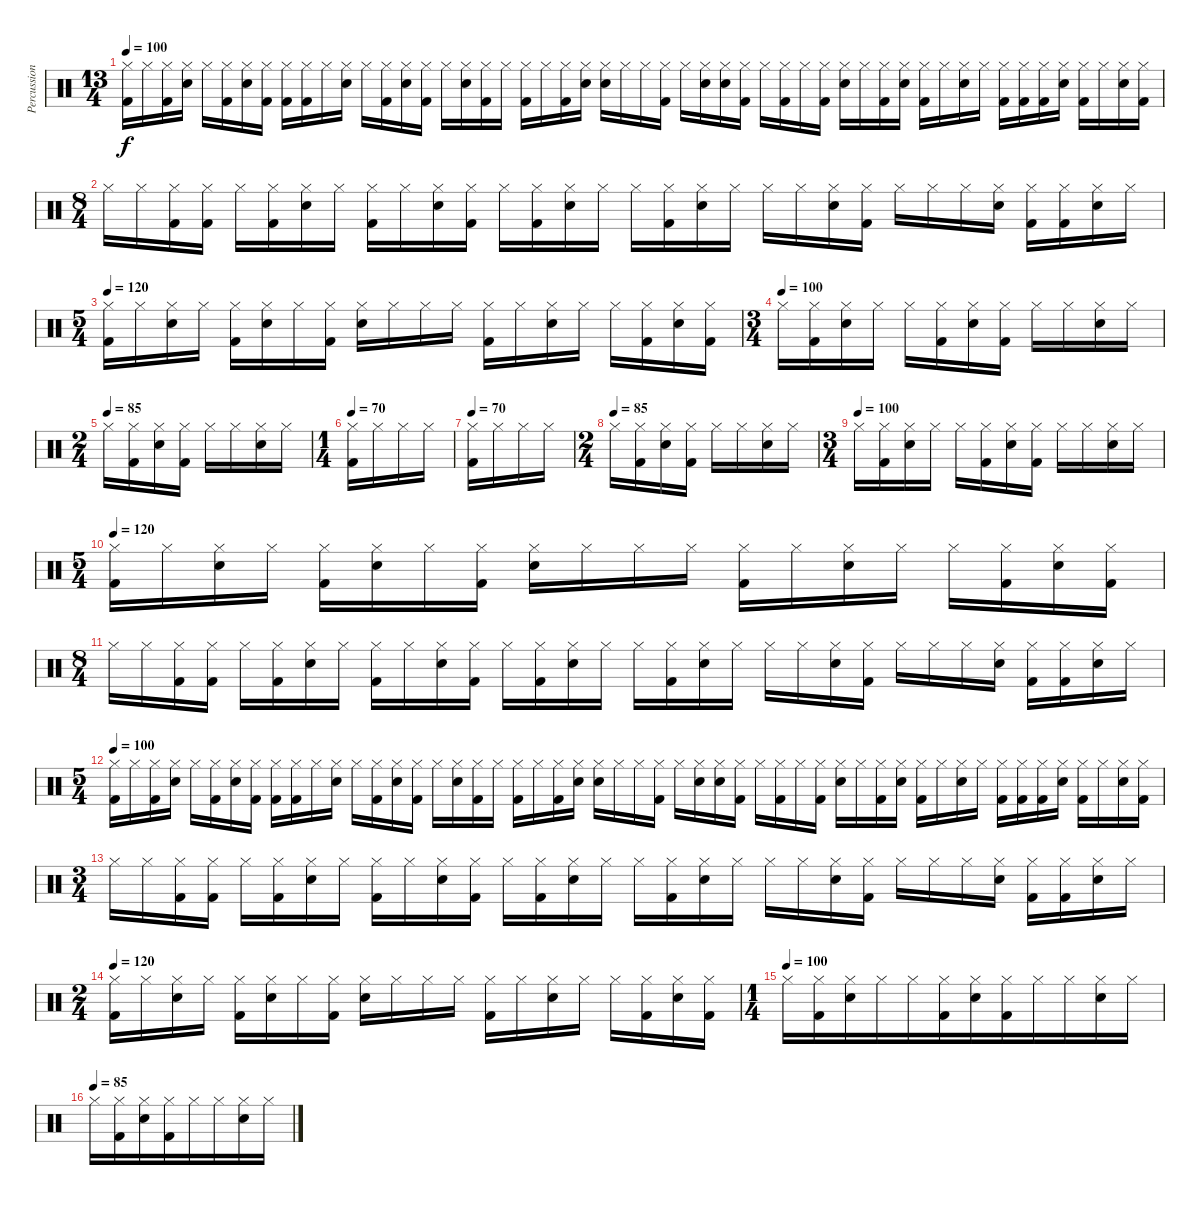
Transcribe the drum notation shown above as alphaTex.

\track ("Percussion" "Percussion") {instrument percussion}
\staff {score}
\articulation defaults
\ts (13 4)
\tempo 100
\clef neutral
\ks c
("Hi-Hat (closed)" "Kick (hit) 2").16{dy f} "Hi-Hat (closed)".16 ("Hi-Hat (closed)" "Kick (hit) 2").16 ("Hi-Hat (closed)" "Snare (hit) 2").16 "Hi-Hat (closed)".16 ("Hi-Hat (closed)" "Kick (hit) 2").16 ("Hi-Hat (closed)" "Snare (hit) 2").16 ("Hi-Hat (closed)" "Kick (hit) 2").16 ("Hi-Hat (closed)" "Kick (hit) 2").16 ("Hi-Hat (closed)" "Kick (hit) 2").16 "Hi-Hat (closed)".16 ("Hi-Hat (closed)" "Snare (hit) 2").16 "Hi-Hat (closed)".16 ("Hi-Hat (closed)" "Kick (hit) 2").16 ("Hi-Hat (closed)" "Snare (hit) 2").16 ("Hi-Hat (closed)" "Kick (hit) 2").16 "Hi-Hat (closed)".16 ("Hi-Hat (closed)" "Snare (hit) 2").16 ("Hi-Hat (closed)" "Kick (hit) 2").16 "Hi-Hat (closed)".16 ("Hi-Hat (closed)" "Kick (hit) 2").16 "Hi-Hat (closed)".16 ("Hi-Hat (closed)" "Kick (hit) 2").16 ("Hi-Hat (closed)" "Snare (hit) 2").16 ("Hi-Hat (closed)" "Snare (hit) 2").16 "Hi-Hat (closed)".16 "Hi-Hat (closed)".16 ("Hi-Hat (closed)" "Kick (hit) 2").16 "Hi-Hat (closed)".16 ("Hi-Hat (closed)" "Snare (hit) 2").16 ("Hi-Hat (closed)" "Snare (hit) 2").16 ("Hi-Hat (closed)" "Kick (hit) 2").16 "Hi-Hat (closed)".16 ("Hi-Hat (closed)" "Kick (hit) 2").16 "Hi-Hat (closed)".16 ("Hi-Hat (closed)" "Kick (hit) 2").16 ("Hi-Hat (closed)" "Snare (hit) 2").16 "Hi-Hat (closed)".16 ("Hi-Hat (closed)" "Kick (hit) 2").16 ("Hi-Hat (closed)" "Snare (hit) 2").16 ("Hi-Hat (closed)" "Kick (hit) 2").16 "Hi-Hat (closed)".16 ("Hi-Hat (closed)" "Snare (hit) 2").16 "Hi-Hat (closed)".16 ("Hi-Hat (closed)" "Kick (hit) 2").16 ("Hi-Hat (closed)" "Kick (hit) 2").16 ("Hi-Hat (closed)" "Kick (hit) 2").16 ("Hi-Hat (closed)" "Snare (hit) 2").16 ("Hi-Hat (closed)" "Kick (hit) 2").16 "Hi-Hat (closed)".16 ("Hi-Hat (closed)" "Snare (hit) 2").16 ("Hi-Hat (closed)" "Kick (hit) 2").16 |
\ts (8 4)
"Hi-Hat (closed)".16 "Hi-Hat (closed)".16 ("Hi-Hat (closed)" "Kick (hit) 2").16 ("Hi-Hat (closed)" "Kick (hit) 2").16 "Hi-Hat (closed)".16 ("Hi-Hat (closed)" "Kick (hit) 2").16 ("Hi-Hat (closed)" "Snare (hit) 2").16 "Hi-Hat (closed)".16 ("Hi-Hat (closed)" "Kick (hit) 2").16 "Hi-Hat (closed)".16 ("Hi-Hat (closed)" "Snare (hit) 2").16 ("Hi-Hat (closed)" "Kick (hit) 2").16 "Hi-Hat (closed)".16 ("Hi-Hat (closed)" "Kick (hit) 2").16 ("Hi-Hat (closed)" "Snare (hit) 2").16 "Hi-Hat (closed)".16 "Hi-Hat (closed)".16 ("Hi-Hat (closed)" "Kick (hit) 2").16 ("Hi-Hat (closed)" "Snare (hit) 2").16 "Hi-Hat (closed)".16 "Hi-Hat (closed)".16 "Hi-Hat (closed)".16 ("Hi-Hat (closed)" "Snare (hit) 2").16 ("Hi-Hat (closed)" "Kick (hit) 2").16 "Hi-Hat (closed)".16 "Hi-Hat (closed)".16 "Hi-Hat (closed)".16 ("Hi-Hat (closed)" "Snare (hit) 2").16 ("Hi-Hat (closed)" "Kick (hit) 2").16 ("Hi-Hat (closed)" "Kick (hit) 2").16 ("Hi-Hat (closed)" "Snare (hit) 2").16 "Hi-Hat (closed)".16 |
\ts (5 4)
\tempo 120
("Hi-Hat (closed)" "Kick (hit) 2").16 "Hi-Hat (closed)".16 ("Hi-Hat (closed)" "Snare (hit) 2").16 "Hi-Hat (closed)".16 ("Hi-Hat (closed)" "Kick (hit) 2").16 ("Hi-Hat (closed)" "Snare (hit) 2").16 "Hi-Hat (closed)".16 ("Hi-Hat (closed)" "Kick (hit) 2").16 ("Hi-Hat (closed)" "Snare (hit) 2").16 "Hi-Hat (closed)".16 "Hi-Hat (closed)".16 "Hi-Hat (closed)".16 ("Hi-Hat (closed)" "Kick (hit) 2").16 "Hi-Hat (closed)".16 ("Hi-Hat (closed)" "Snare (hit) 2").16 "Hi-Hat (closed)".16 "Hi-Hat (closed)".16 ("Hi-Hat (closed)" "Kick (hit) 2").16 ("Hi-Hat (closed)" "Snare (hit) 2").16 ("Hi-Hat (closed)" "Kick (hit) 2").16 |
\ts (3 4)
\tempo (100)
"Hi-Hat (closed)".16 ("Hi-Hat (closed)" "Kick (hit) 2").16 ("Hi-Hat (closed)" "Snare (hit) 2").16 "Hi-Hat (closed)".16 "Hi-Hat (closed)".16 ("Hi-Hat (closed)" "Kick (hit) 2").16 ("Hi-Hat (closed)" "Snare (hit) 2").16 ("Hi-Hat (closed)" "Kick (hit) 2").16 "Hi-Hat (closed)".16 "Hi-Hat (closed)".16 ("Hi-Hat (closed)" "Snare (hit) 2").16 "Hi-Hat (closed)".16 |
\ts (2 4)
\tempo (85)
"Hi-Hat (closed)".16 ("Hi-Hat (closed)" "Kick (hit) 2").16 ("Hi-Hat (closed)" "Snare (hit) 2").16 ("Hi-Hat (closed)" "Kick (hit) 2").16 "Hi-Hat (closed)".16 "Hi-Hat (closed)".16 ("Hi-Hat (closed)" "Snare (hit) 2").16 "Hi-Hat (closed)".16 |
\ts (1 4)
\tempo 70
("Hi-Hat (closed)" "Kick (hit) 2").16 "Hi-Hat (closed)".16 "Hi-Hat (closed)".16 "Hi-Hat (closed)".16 |
\tempo 70
("Hi-Hat (closed)" "Kick (hit) 2").16 "Hi-Hat (closed)".16 "Hi-Hat (closed)".16 "Hi-Hat (closed)".16 |
\ts (2 4)
\tempo (85)
"Hi-Hat (closed)".16 ("Hi-Hat (closed)" "Kick (hit) 2").16 ("Hi-Hat (closed)" "Snare (hit) 2").16 ("Hi-Hat (closed)" "Kick (hit) 2").16 "Hi-Hat (closed)".16 "Hi-Hat (closed)".16 ("Hi-Hat (closed)" "Snare (hit) 2").16 "Hi-Hat (closed)".16 |
\ts (3 4)
\tempo (100)
"Hi-Hat (closed)".16 ("Hi-Hat (closed)" "Kick (hit) 2").16 ("Hi-Hat (closed)" "Snare (hit) 2").16 "Hi-Hat (closed)".16 "Hi-Hat (closed)".16 ("Hi-Hat (closed)" "Kick (hit) 2").16 ("Hi-Hat (closed)" "Snare (hit) 2").16 ("Hi-Hat (closed)" "Kick (hit) 2").16 "Hi-Hat (closed)".16 "Hi-Hat (closed)".16 ("Hi-Hat (closed)" "Snare (hit) 2").16 "Hi-Hat (closed)".16 |
\ts (5 4)
\tempo 120
("Hi-Hat (closed)" "Kick (hit) 2").16 "Hi-Hat (closed)".16 ("Hi-Hat (closed)" "Snare (hit) 2").16 "Hi-Hat (closed)".16 ("Hi-Hat (closed)" "Kick (hit) 2").16 ("Hi-Hat (closed)" "Snare (hit) 2").16 "Hi-Hat (closed)".16 ("Hi-Hat (closed)" "Kick (hit) 2").16 ("Hi-Hat (closed)" "Snare (hit) 2").16 "Hi-Hat (closed)".16 "Hi-Hat (closed)".16 "Hi-Hat (closed)".16 ("Hi-Hat (closed)" "Kick (hit) 2").16 "Hi-Hat (closed)".16 ("Hi-Hat (closed)" "Snare (hit) 2").16 "Hi-Hat (closed)".16 "Hi-Hat (closed)".16 ("Hi-Hat (closed)" "Kick (hit) 2").16 ("Hi-Hat (closed)" "Snare (hit) 2").16 ("Hi-Hat (closed)" "Kick (hit) 2").16 |
\ts (8 4)
"Hi-Hat (closed)".16 "Hi-Hat (closed)".16 ("Hi-Hat (closed)" "Kick (hit) 2").16 ("Hi-Hat (closed)" "Kick (hit) 2").16 "Hi-Hat (closed)".16 ("Hi-Hat (closed)" "Kick (hit) 2").16 ("Hi-Hat (closed)" "Snare (hit) 2").16 "Hi-Hat (closed)".16 ("Hi-Hat (closed)" "Kick (hit) 2").16 "Hi-Hat (closed)".16 ("Hi-Hat (closed)" "Snare (hit) 2").16 ("Hi-Hat (closed)" "Kick (hit) 2").16 "Hi-Hat (closed)".16 ("Hi-Hat (closed)" "Kick (hit) 2").16 ("Hi-Hat (closed)" "Snare (hit) 2").16 "Hi-Hat (closed)".16 "Hi-Hat (closed)".16 ("Hi-Hat (closed)" "Kick (hit) 2").16 ("Hi-Hat (closed)" "Snare (hit) 2").16 "Hi-Hat (closed)".16 "Hi-Hat (closed)".16 "Hi-Hat (closed)".16 ("Hi-Hat (closed)" "Snare (hit) 2").16 ("Hi-Hat (closed)" "Kick (hit) 2").16 "Hi-Hat (closed)".16 "Hi-Hat (closed)".16 "Hi-Hat (closed)".16 ("Hi-Hat (closed)" "Snare (hit) 2").16 ("Hi-Hat (closed)" "Kick (hit) 2").16 ("Hi-Hat (closed)" "Kick (hit) 2").16 ("Hi-Hat (closed)" "Snare (hit) 2").16 "Hi-Hat (closed)".16 |
\ts (5 4)
\tempo 100
("Hi-Hat (closed)" "Kick (hit) 2").16 "Hi-Hat (closed)".16 ("Hi-Hat (closed)" "Kick (hit) 2").16 ("Hi-Hat (closed)" "Snare (hit) 2").16 "Hi-Hat (closed)".16 ("Hi-Hat (closed)" "Kick (hit) 2").16 ("Hi-Hat (closed)" "Snare (hit) 2").16 ("Hi-Hat (closed)" "Kick (hit) 2").16 ("Hi-Hat (closed)" "Kick (hit) 2").16 ("Hi-Hat (closed)" "Kick (hit) 2").16 "Hi-Hat (closed)".16 ("Hi-Hat (closed)" "Snare (hit) 2").16 "Hi-Hat (closed)".16 ("Hi-Hat (closed)" "Kick (hit) 2").16 ("Hi-Hat (closed)" "Snare (hit) 2").16 ("Hi-Hat (closed)" "Kick (hit) 2").16 "Hi-Hat (closed)".16 ("Hi-Hat (closed)" "Snare (hit) 2").16 ("Hi-Hat (closed)" "Kick (hit) 2").16 "Hi-Hat (closed)".16 ("Hi-Hat (closed)" "Kick (hit) 2").16 "Hi-Hat (closed)".16 ("Hi-Hat (closed)" "Kick (hit) 2").16 ("Hi-Hat (closed)" "Snare (hit) 2").16 ("Hi-Hat (closed)" "Snare (hit) 2").16 "Hi-Hat (closed)".16 "Hi-Hat (closed)".16 ("Hi-Hat (closed)" "Kick (hit) 2").16 "Hi-Hat (closed)".16 ("Hi-Hat (closed)" "Snare (hit) 2").16 ("Hi-Hat (closed)" "Snare (hit) 2").16 ("Hi-Hat (closed)" "Kick (hit) 2").16 "Hi-Hat (closed)".16 ("Hi-Hat (closed)" "Kick (hit) 2").16 "Hi-Hat (closed)".16 ("Hi-Hat (closed)" "Kick (hit) 2").16 ("Hi-Hat (closed)" "Snare (hit) 2").16 "Hi-Hat (closed)".16 ("Hi-Hat (closed)" "Kick (hit) 2").16 ("Hi-Hat (closed)" "Snare (hit) 2").16 ("Hi-Hat (closed)" "Kick (hit) 2").16 "Hi-Hat (closed)".16 ("Hi-Hat (closed)" "Snare (hit) 2").16 "Hi-Hat (closed)".16 ("Hi-Hat (closed)" "Kick (hit) 2").16 ("Hi-Hat (closed)" "Kick (hit) 2").16 ("Hi-Hat (closed)" "Kick (hit) 2").16 ("Hi-Hat (closed)" "Snare (hit) 2").16 ("Hi-Hat (closed)" "Kick (hit) 2").16 "Hi-Hat (closed)".16 ("Hi-Hat (closed)" "Snare (hit) 2").16 ("Hi-Hat (closed)" "Kick (hit) 2").16 |
\ts (3 4)
"Hi-Hat (closed)".16 "Hi-Hat (closed)".16 ("Hi-Hat (closed)" "Kick (hit) 2").16 ("Hi-Hat (closed)" "Kick (hit) 2").16 "Hi-Hat (closed)".16 ("Hi-Hat (closed)" "Kick (hit) 2").16 ("Hi-Hat (closed)" "Snare (hit) 2").16 "Hi-Hat (closed)".16 ("Hi-Hat (closed)" "Kick (hit) 2").16 "Hi-Hat (closed)".16 ("Hi-Hat (closed)" "Snare (hit) 2").16 ("Hi-Hat (closed)" "Kick (hit) 2").16 "Hi-Hat (closed)".16 ("Hi-Hat (closed)" "Kick (hit) 2").16 ("Hi-Hat (closed)" "Snare (hit) 2").16 "Hi-Hat (closed)".16 "Hi-Hat (closed)".16 ("Hi-Hat (closed)" "Kick (hit) 2").16 ("Hi-Hat (closed)" "Snare (hit) 2").16 "Hi-Hat (closed)".16 "Hi-Hat (closed)".16 "Hi-Hat (closed)".16 ("Hi-Hat (closed)" "Snare (hit) 2").16 ("Hi-Hat (closed)" "Kick (hit) 2").16 "Hi-Hat (closed)".16 "Hi-Hat (closed)".16 "Hi-Hat (closed)".16 ("Hi-Hat (closed)" "Snare (hit) 2").16 ("Hi-Hat (closed)" "Kick (hit) 2").16 ("Hi-Hat (closed)" "Kick (hit) 2").16 ("Hi-Hat (closed)" "Snare (hit) 2").16 "Hi-Hat (closed)".16 |
\ts (2 4)
\tempo 120
("Hi-Hat (closed)" "Kick (hit) 2").16 "Hi-Hat (closed)".16 ("Hi-Hat (closed)" "Snare (hit) 2").16 "Hi-Hat (closed)".16 ("Hi-Hat (closed)" "Kick (hit) 2").16 ("Hi-Hat (closed)" "Snare (hit) 2").16 "Hi-Hat (closed)".16 ("Hi-Hat (closed)" "Kick (hit) 2").16 ("Hi-Hat (closed)" "Snare (hit) 2").16 "Hi-Hat (closed)".16 "Hi-Hat (closed)".16 "Hi-Hat (closed)".16 ("Hi-Hat (closed)" "Kick (hit) 2").16 "Hi-Hat (closed)".16 ("Hi-Hat (closed)" "Snare (hit) 2").16 "Hi-Hat (closed)".16 "Hi-Hat (closed)".16 ("Hi-Hat (closed)" "Kick (hit) 2").16 ("Hi-Hat (closed)" "Snare (hit) 2").16 ("Hi-Hat (closed)" "Kick (hit) 2").16 |
\ts (1 4)
\tempo (100)
"Hi-Hat (closed)".16 ("Hi-Hat (closed)" "Kick (hit) 2").16 ("Hi-Hat (closed)" "Snare (hit) 2").16 "Hi-Hat (closed)".16 "Hi-Hat (closed)".16 ("Hi-Hat (closed)" "Kick (hit) 2").16 ("Hi-Hat (closed)" "Snare (hit) 2").16 ("Hi-Hat (closed)" "Kick (hit) 2").16 "Hi-Hat (closed)".16 "Hi-Hat (closed)".16 ("Hi-Hat (closed)" "Snare (hit) 2").16 "Hi-Hat (closed)".16 |
\tempo (85)
"Hi-Hat (closed)".16 ("Hi-Hat (closed)" "Kick (hit) 2").16 ("Hi-Hat (closed)" "Snare (hit) 2").16 ("Hi-Hat (closed)" "Kick (hit) 2").16 "Hi-Hat (closed)".16 "Hi-Hat (closed)".16 ("Hi-Hat (closed)" "Snare (hit) 2").16 "Hi-Hat (closed)".16
